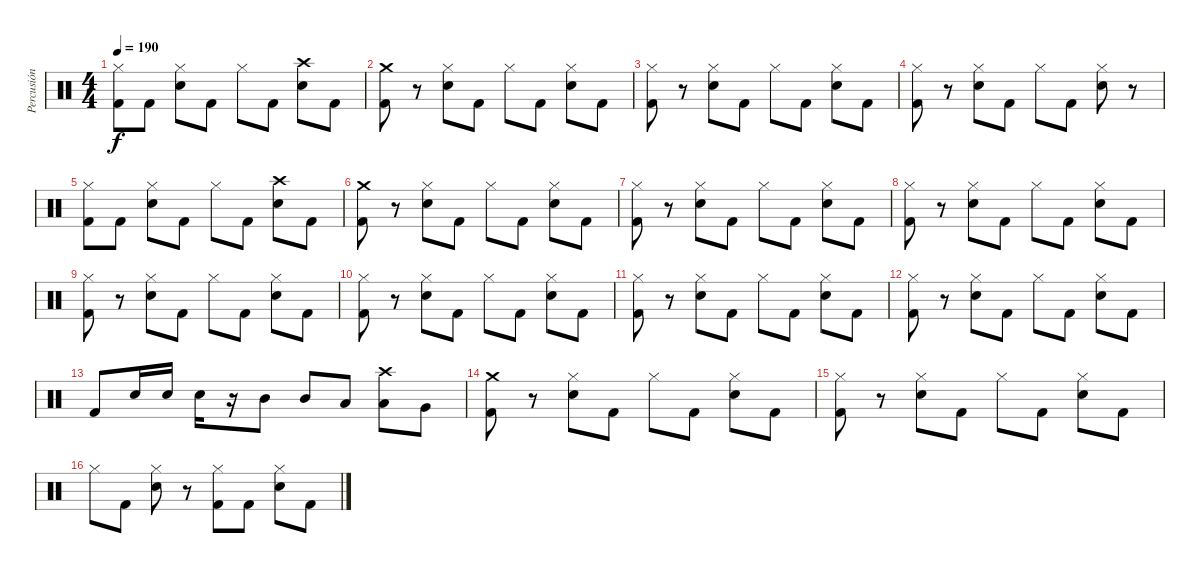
\track ("Percusión" "Percusión") {instrument percussion}
\staff {score}
\articulation defaults
\ts (4 4)
\tempo 190
\clef neutral
\ks c
("Hi-Hat (closed)" "Kick (hit) 2").8{dy f} "Kick (hit) 2".8 ("Hi-Hat (closed)" "Snare (hit) 2").8 "Kick (hit) 2".8 "Hi-Hat (closed)".8 "Kick (hit) 2".8 ("Crash high (hit)" "Snare (hit) 2").8 "Kick (hit) 2".8 |
("Crash medium (hit)" "Kick (hit) 2").8 r.8 ("Hi-Hat (closed)" "Snare (hit) 2").8 "Kick (hit) 2".8 "Hi-Hat (closed)".8 "Kick (hit) 2".8 ("Hi-Hat (closed)" "Snare (hit) 2").8 "Kick (hit) 2".8 |
("Hi-Hat (closed)" "Kick (hit) 2").8 r.8 ("Hi-Hat (closed)" "Snare (hit) 2").8 "Kick (hit) 2".8 "Hi-Hat (closed)".8 "Kick (hit) 2".8 ("Hi-Hat (closed)" "Snare (hit) 2").8 "Kick (hit) 2".8 |
("Hi-Hat (closed)" "Kick (hit) 2").8 r.8 ("Hi-Hat (closed)" "Snare (hit) 2").8 "Kick (hit) 2".8 "Hi-Hat (closed)".8 "Kick (hit) 2".8 ("Hi-Hat (closed)" "Snare (hit) 2").8 r.8 |
("Hi-Hat (closed)" "Kick (hit) 2").8 "Kick (hit) 2".8 ("Hi-Hat (closed)" "Snare (hit) 2").8 "Kick (hit) 2".8 "Hi-Hat (closed)".8 "Kick (hit) 2".8 ("Crash high (hit)" "Snare (hit) 2").8 "Kick (hit) 2".8 |
("Crash medium (hit)" "Kick (hit) 2").8 r.8 ("Hi-Hat (closed)" "Snare (hit) 2").8 "Kick (hit) 2".8 "Hi-Hat (closed)".8 "Kick (hit) 2".8 ("Hi-Hat (closed)" "Snare (hit) 2").8 "Kick (hit) 2".8 |
("Hi-Hat (closed)" "Kick (hit) 2").8 r.8 ("Hi-Hat (closed)" "Snare (hit) 2").8 "Kick (hit) 2".8 "Hi-Hat (closed)".8 "Kick (hit) 2".8 ("Hi-Hat (closed)" "Snare (hit) 2").8 "Kick (hit) 2".8 |
("Hi-Hat (closed)" "Kick (hit) 2").8 r.8 ("Hi-Hat (closed)" "Snare (hit) 2").8 "Kick (hit) 2".8 "Hi-Hat (closed)".8 "Kick (hit) 2".8 ("Hi-Hat (closed)" "Snare (hit) 2").8 "Kick (hit) 2".8 |
("Hi-Hat (closed)" "Kick (hit) 2").8 r.8 ("Hi-Hat (closed)" "Snare (hit) 2").8 "Kick (hit) 2".8 "Hi-Hat (closed)".8 "Kick (hit) 2".8 ("Hi-Hat (closed)" "Snare (hit) 2").8 "Kick (hit) 2".8 |
("Hi-Hat (closed)" "Kick (hit) 2").8 r.8 ("Hi-Hat (closed)" "Snare (hit) 2").8 "Kick (hit) 2".8 "Hi-Hat (closed)".8 "Kick (hit) 2".8 ("Hi-Hat (closed)" "Snare (hit) 2").8 "Kick (hit) 2".8 |
("Hi-Hat (closed)" "Kick (hit) 2").8 r.8 ("Hi-Hat (closed)" "Snare (hit) 2").8 "Kick (hit) 2".8 "Hi-Hat (closed)".8 "Kick (hit) 2".8 ("Hi-Hat (closed)" "Snare (hit) 2").8 "Kick (hit) 2".8 |
("Hi-Hat (closed)" "Kick (hit) 2").8 r.8 ("Hi-Hat (closed)" "Snare (hit) 2").8 "Kick (hit) 2".8 "Hi-Hat (closed)".8 "Kick (hit) 2".8 ("Hi-Hat (closed)" "Snare (hit) 2").8 "Kick (hit) 2".8 |
"Kick (hit) 2".8 "Snare (hit) 2".16 "Snare (hit) 2".16 "Snare (hit) 2".16 r.16 "Mid Tom (hit)".8 "Mid Tom (hit)".8 "Low Tom (hit)".8 ("Crash high (hit)" "Low Tom (hit)").8 "Very Low Tom (hit)".8 |
("Crash medium (hit)" "Kick (hit) 2").8 r.8 ("Hi-Hat (closed)" "Snare (hit) 2").8 "Kick (hit) 2".8 "Hi-Hat (closed)".8 "Kick (hit) 2".8 ("Hi-Hat (closed)" "Snare (hit) 2").8 "Kick (hit) 2".8 |
("Hi-Hat (closed)" "Kick (hit) 2").8 r.8 ("Hi-Hat (closed)" "Snare (hit) 2").8 "Kick (hit) 2".8 "Hi-Hat (closed)".8 "Kick (hit) 2".8 ("Hi-Hat (closed)" "Snare (hit) 2").8 "Kick (hit) 2".8 |
"Hi-Hat (closed)".8 "Kick (hit) 2".8 ("Hi-Hat (closed)" "Snare (hit) 2").8 r.8 ("Hi-Hat (closed)" "Kick (hit) 2").8 "Kick (hit) 2".8 ("Hi-Hat (closed)" "Snare (hit) 2").8 "Kick (hit) 2".8
